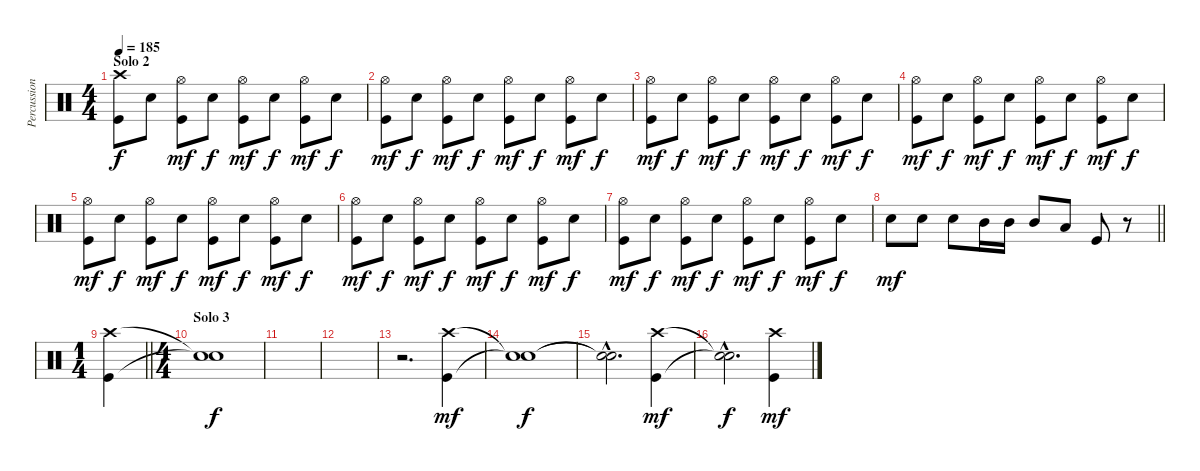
\track ("Percussion" "Percussion") {instrument percussion}
\staff {score}
\articulation defaults
\ts (4 4)
\section ("" "Solo 2")
\tempo 185
\clef neutral
\ks c
("Kick (hit)" "Crash high (hit)").8{dy f} "Snare (hit) 2".8 ("Hi-Hat (open)" "Kick (hit)").8{dy mf} "Snare (hit) 2".8{dy f} ("Kick (hit)" "Hi-Hat (open)").8{dy mf} "Snare (hit) 2".8{dy f} ("Hi-Hat (open)" "Kick (hit)").8{dy mf} "Snare (hit) 2".8{dy f} |
("Kick (hit)" "Hi-Hat (open)").8{dy mf} "Snare (hit) 2".8{dy f} ("Hi-Hat (open)" "Kick (hit)").8{dy mf} "Snare (hit) 2".8{dy f} ("Kick (hit)" "Hi-Hat (open)").8{dy mf} "Snare (hit) 2".8{dy f} ("Hi-Hat (open)" "Kick (hit)").8{dy mf} "Snare (hit) 2".8{dy f} |
("Kick (hit)" "Hi-Hat (open)").8{dy mf} "Snare (hit) 2".8{dy f} ("Hi-Hat (open)" "Kick (hit)").8{dy mf} "Snare (hit) 2".8{dy f} ("Kick (hit)" "Hi-Hat (open)").8{dy mf} "Snare (hit) 2".8{dy f} ("Hi-Hat (open)" "Kick (hit)").8{dy mf} "Snare (hit) 2".8{dy f} |
("Kick (hit)" "Hi-Hat (open)").8{dy mf} "Snare (hit) 2".8{dy f} ("Hi-Hat (open)" "Kick (hit)").8{dy mf} "Snare (hit) 2".8{dy f} ("Kick (hit)" "Hi-Hat (open)").8{dy mf} "Snare (hit) 2".8{dy f} ("Hi-Hat (open)" "Kick (hit)").8{dy mf} "Snare (hit) 2".8{dy f} |
("Kick (hit)" "Hi-Hat (open)").8{dy mf} "Snare (hit) 2".8{dy f} ("Hi-Hat (open)" "Kick (hit)").8{dy mf} "Snare (hit) 2".8{dy f} ("Kick (hit)" "Hi-Hat (open)").8{dy mf} "Snare (hit) 2".8{dy f} ("Hi-Hat (open)" "Kick (hit)").8{dy mf} "Snare (hit) 2".8{dy f} |
("Kick (hit)" "Hi-Hat (open)").8{dy mf} "Snare (hit) 2".8{dy f} ("Hi-Hat (open)" "Kick (hit)").8{dy mf} "Snare (hit) 2".8{dy f} ("Kick (hit)" "Hi-Hat (open)").8{dy mf} "Snare (hit) 2".8{dy f} ("Hi-Hat (open)" "Kick (hit)").8{dy mf} "Snare (hit) 2".8{dy f} |
("Kick (hit)" "Hi-Hat (open)").8{dy mf} "Snare (hit) 2".8{dy f} ("Hi-Hat (open)" "Kick (hit)").8{dy mf} "Snare (hit) 2".8{dy f} ("Kick (hit)" "Hi-Hat (open)").8{dy mf} "Snare (hit) 2".8{dy f} ("Hi-Hat (open)" "Kick (hit)").8{dy mf} "Snare (hit) 2".8{dy f} |
\barLineRight lightlight "Snare (hit) 2".8{dy mf} "Snare (hit) 2".8 "Snare (hit) 2".8 "Mid Tom (hit)".16 "Mid Tom (hit)".16 "Mid Tom (hit)".8 "Low Tom (hit)".8 "Kick (hit)".8
r.8 |
\ts (1 4)
\barLineRight lightlight
("Crash high (hit)" "Kick (hit)").4 |
\ts (4 4)
\section ("" "Solo 3")
("Snare (hit)"{t} "Snare (hit)"{t}).1{dy f} |
|
|
r.2{d} ("Kick (hit)" "Crash high (hit)").4{dy mf} |
("Snare (hit)"{t} "Snare (hit)"{t}).1{dy f} |
("Snare (hit)"{hac t} "Snare (hit)"{hac t}).2{d} ("Kick (hit)" "Crash high (hit)").4{dy mf} |
("Snare (hit)"{hac t} "Snare (hit)"{hac t}).2{d dy f} ("Crash high (hit)" "Kick (hit)").4{dy mf}
